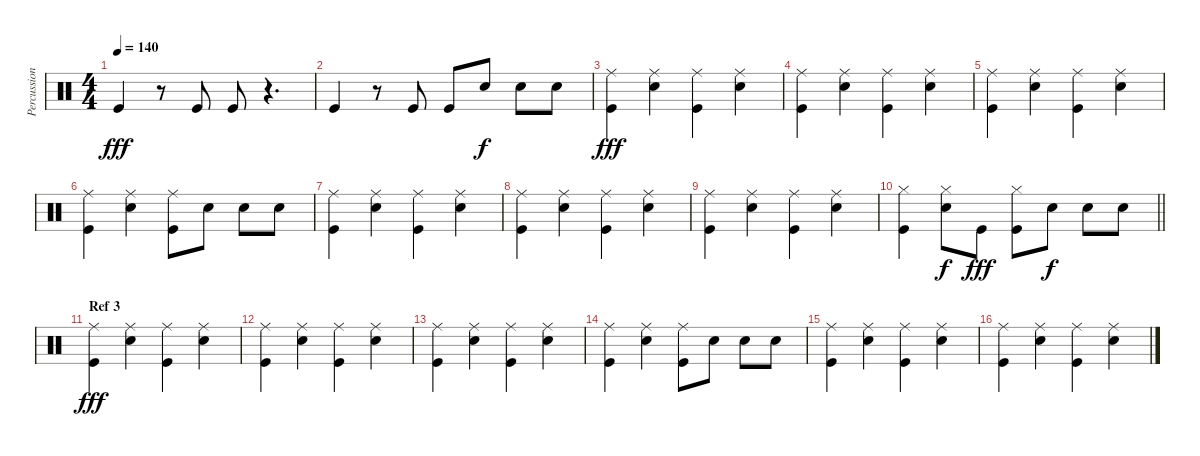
\track ("Percussion" "Percussion") {instrument percussion}
\staff {score}
\articulation defaults
\ts (4 4)
\tempo 140
\clef neutral
\ks c "Kick (hit)".4{dy fff}
r.8 "Kick (hit)".8 "Kick (hit)".8 r.4{d} |
"Kick (hit)".4 r.8 "Kick (hit)".8 "Kick (hit)".8 "Snare (hit) 2".8{dy f} "Snare (hit) 2".8 "Snare (hit) 2".8 |
("Ride (middle)" "Kick (hit)").4{dy fff} ("Ride (middle)" "Snare (hit) 2").4 ("Ride (middle)" "Kick (hit)").4 ("Ride (middle)" "Snare (hit) 2").4 |
("Ride (middle)" "Kick (hit)").4 ("Ride (middle)" "Snare (hit) 2").4 ("Ride (middle)" "Kick (hit)").4 ("Ride (middle)" "Snare (hit) 2").4 |
("Ride (middle)" "Kick (hit)").4 ("Ride (middle)" "Snare (hit) 2").4 ("Ride (middle)" "Kick (hit)").4 ("Ride (middle)" "Snare (hit) 2").4 |
("Ride (middle)" "Kick (hit)").4 ("Ride (middle)" "Snare (hit) 2").4 ("Ride (middle)" "Kick (hit)").8 "Snare (hit) 2".8 "Snare (hit) 2".8 "Snare (hit) 2".8 |
("Ride (middle)" "Kick (hit)").4 ("Ride (middle)" "Snare (hit) 2").4 ("Ride (middle)" "Kick (hit)").4 ("Ride (middle)" "Snare (hit) 2").4 |
("Ride (middle)" "Kick (hit)").4 ("Ride (middle)" "Snare (hit) 2").4 ("Ride (middle)" "Kick (hit)").4 ("Ride (middle)" "Snare (hit) 2").4 |
("Ride (middle)" "Kick (hit)").4 ("Ride (middle)" "Snare (hit) 2").4 ("Ride (middle)" "Kick (hit)").4 ("Ride (middle)" "Snare (hit) 2").4 |
\barLineRight lightlight
("Hi-Hat (closed)" "Kick (hit)").4 ("Hi-Hat (closed)" "Snare (hit) 2").8{dy f} "Kick (hit)".8{dy fff} ("Hi-Hat (closed)" "Kick (hit)").8 "Snare (hit) 2".8{dy f} "Snare (hit) 2".8 "Snare (hit) 2".8 |
\section ("" "Ref 3")
("Ride (middle)" "Kick (hit)").4{dy fff} ("Ride (middle)" "Snare (hit) 2").4 ("Ride (middle)" "Kick (hit)").4 ("Ride (middle)" "Snare (hit) 2").4 |
("Ride (middle)" "Kick (hit)").4 ("Ride (middle)" "Snare (hit) 2").4 ("Ride (middle)" "Kick (hit)").4 ("Ride (middle)" "Snare (hit) 2").4 |
("Ride (middle)" "Kick (hit)").4 ("Ride (middle)" "Snare (hit) 2").4 ("Ride (middle)" "Kick (hit)").4 ("Ride (middle)" "Snare (hit) 2").4 |
("Ride (middle)" "Kick (hit)").4 ("Ride (middle)" "Snare (hit) 2").4 ("Ride (middle)" "Kick (hit)").8 "Snare (hit) 2".8 "Snare (hit) 2".8 "Snare (hit) 2".8 |
("Ride (middle)" "Kick (hit)").4 ("Ride (middle)" "Snare (hit) 2").4 ("Ride (middle)" "Kick (hit)").4 ("Ride (middle)" "Snare (hit) 2").4 |
("Ride (middle)" "Kick (hit)").4 ("Ride (middle)" "Snare (hit) 2").4 ("Ride (middle)" "Kick (hit)").4 ("Ride (middle)" "Snare (hit) 2").4
